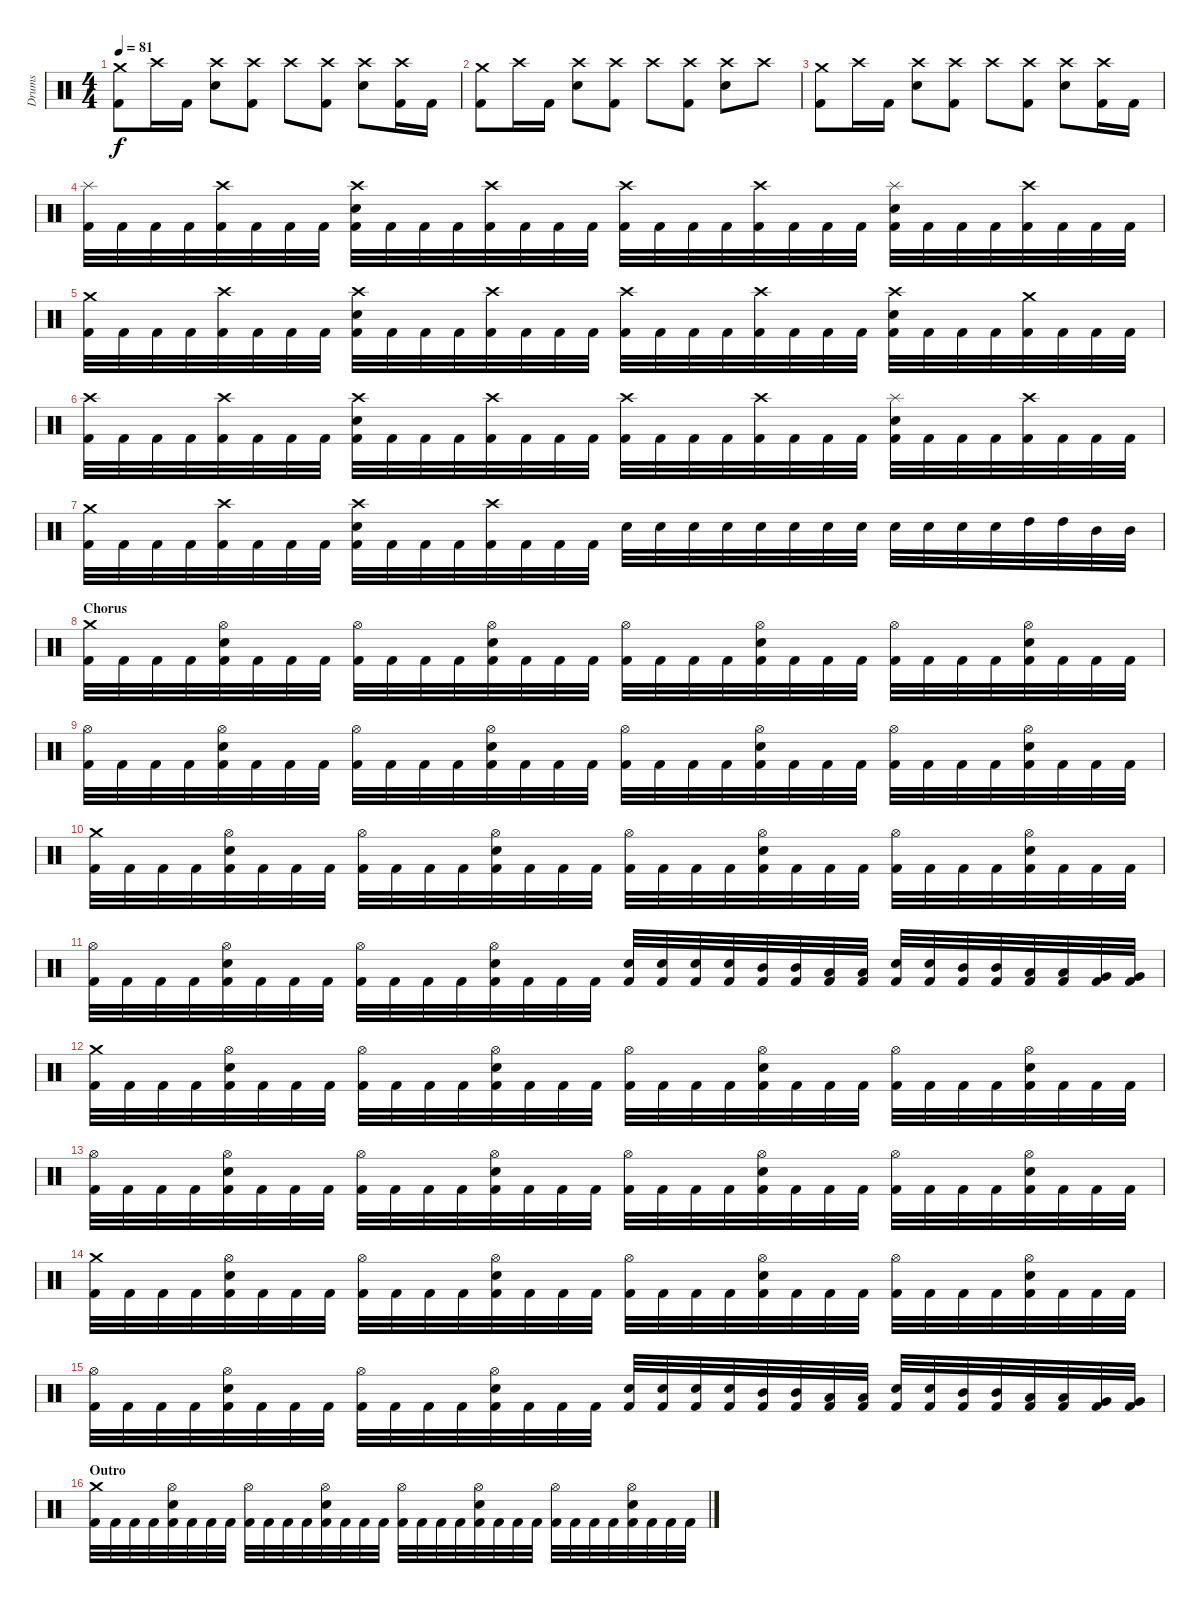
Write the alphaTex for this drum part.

\track ("Drums" "Drums") {instrument percussion}
\staff {score}
\articulation defaults
\ts (4 4)
\tempo 81
\clef neutral
\ks c
("Crash medium (hit)" "Kick (hit) 2").8{dy f} "Crash high (hit)".16 "Kick (hit) 2".16 ("Crash high (hit)" "Electric Snare (hit)").8 ("Crash high (hit)" "Kick (hit) 2").8 "Crash high (hit)".8 ("Crash high (hit)" "Kick (hit) 2").8 ("Crash high (hit)" "Electric Snare (hit)").8 ("Crash high (hit)" "Kick (hit) 2").16 "Kick (hit) 2".16 |
("Crash medium (hit)" "Kick (hit) 2").8 "Crash high (hit)".16 "Kick (hit) 2".16 ("Crash high (hit)" "Electric Snare (hit)").8 ("Crash high (hit)" "Kick (hit) 2").8 "Crash high (hit)".8 ("Crash high (hit)" "Kick (hit) 2").8 ("Crash high (hit)" "Electric Snare (hit)").8 "Crash high (hit)".8 |
("Crash medium (hit)" "Kick (hit) 2").8 "Crash high (hit)".16 "Kick (hit) 2".16 ("Crash high (hit)" "Electric Snare (hit)").8 ("Crash high (hit)" "Kick (hit) 2").8 "Crash high (hit)".8 ("Crash high (hit)" "Kick (hit) 2").8 ("Crash high (hit)" "Electric Snare (hit)").8 ("Crash high (hit)" "Kick (hit) 2").16 "Kick (hit) 2".16 |
("Splash (hit)" "Kick (hit) 2").32 "Kick (hit) 2".32 "Kick (hit) 2".32 "Kick (hit) 2".32 ("Crash high (hit)" "Kick (hit) 2").32 "Kick (hit) 2".32 "Kick (hit) 2".32 "Kick (hit) 2".32 ("Crash high (hit)" "Electric Snare (hit)" "Kick (hit) 2").32 "Kick (hit) 2".32 "Kick (hit) 2".32 "Kick (hit) 2".32 ("Crash high (hit)" "Kick (hit) 2").32 "Kick (hit) 2".32 "Kick (hit) 2".32 "Kick (hit) 2".32 ("Crash high (hit)" "Kick (hit) 2").32 "Kick (hit) 2".32 "Kick (hit) 2".32 "Kick (hit) 2".32 ("Crash high (hit)" "Kick (hit) 2").32 "Kick (hit) 2".32 "Kick (hit) 2".32 "Kick (hit) 2".32 ("Splash (hit)" "Electric Snare (hit)" "Kick (hit) 2").32 "Kick (hit) 2".32 "Kick (hit) 2".32 "Kick (hit) 2".32 ("Crash high (hit)" "Kick (hit) 2").32 "Kick (hit) 2".32 "Kick (hit) 2".32 "Kick (hit) 2".32 |
("Crash medium (hit)" "Kick (hit) 2").32 "Kick (hit) 2".32 "Kick (hit) 2".32 "Kick (hit) 2".32 ("Crash high (hit)" "Kick (hit) 2").32 "Kick (hit) 2".32 "Kick (hit) 2".32 "Kick (hit) 2".32 ("Crash high (hit)" "Electric Snare (hit)" "Kick (hit) 2").32 "Kick (hit) 2".32 "Kick (hit) 2".32 "Kick (hit) 2".32 ("Crash high (hit)" "Kick (hit) 2").32 "Kick (hit) 2".32 "Kick (hit) 2".32 "Kick (hit) 2".32 ("Crash high (hit)" "Kick (hit) 2").32 "Kick (hit) 2".32 "Kick (hit) 2".32 "Kick (hit) 2".32 ("Crash high (hit)" "Kick (hit) 2").32 "Kick (hit) 2".32 "Kick (hit) 2".32 "Kick (hit) 2".32 ("Crash high (hit)" "Electric Snare (hit)" "Kick (hit) 2").32 "Kick (hit) 2".32 "Kick (hit) 2".32 "Kick (hit) 2".32 ("Crash medium (hit)" "Kick (hit) 2").32 "Kick (hit) 2".32 "Kick (hit) 2".32 "Kick (hit) 2".32 |
("Crash high (hit)" "Kick (hit) 2").32 "Kick (hit) 2".32 "Kick (hit) 2".32 "Kick (hit) 2".32 ("Crash high (hit)" "Kick (hit) 2").32 "Kick (hit) 2".32 "Kick (hit) 2".32 "Kick (hit) 2".32 ("Crash high (hit)" "Electric Snare (hit)" "Kick (hit) 2").32 "Kick (hit) 2".32 "Kick (hit) 2".32 "Kick (hit) 2".32 ("Crash high (hit)" "Kick (hit) 2").32 "Kick (hit) 2".32 "Kick (hit) 2".32 "Kick (hit) 2".32 ("Crash high (hit)" "Kick (hit) 2").32 "Kick (hit) 2".32 "Kick (hit) 2".32 "Kick (hit) 2".32 ("Crash high (hit)" "Kick (hit) 2").32 "Kick (hit) 2".32 "Kick (hit) 2".32 "Kick (hit) 2".32 ("Splash (hit)" "Electric Snare (hit)" "Kick (hit) 2").32 "Kick (hit) 2".32 "Kick (hit) 2".32 "Kick (hit) 2".32 ("Crash high (hit)" "Kick (hit) 2").32 "Kick (hit) 2".32 "Kick (hit) 2".32 "Kick (hit) 2".32 |
("Crash medium (hit)" "Kick (hit) 2").32 "Kick (hit) 2".32 "Kick (hit) 2".32 "Kick (hit) 2".32 ("Crash high (hit)" "Kick (hit) 2").32 "Kick (hit) 2".32 "Kick (hit) 2".32 "Kick (hit) 2".32 ("Crash high (hit)" "Electric Snare (hit)" "Kick (hit) 2").32 "Kick (hit) 2".32 "Kick (hit) 2".32 "Kick (hit) 2".32 ("Crash high (hit)" "Kick (hit) 2").32 "Kick (hit) 2".32 "Kick (hit) 2".32 "Kick (hit) 2".32 "Electric Snare (hit)".32{volume 0} "Electric Snare (hit)".32{volume 14} "Electric Snare (hit)".32 "Electric Snare (hit)".32 "Electric Snare (hit)".32 "Electric Snare (hit)".32 "Electric Snare (hit)".32 "Electric Snare (hit)".32 "Electric Snare (hit)".32 "Electric Snare (hit)".32 "Electric Snare (hit)".32 "Electric Snare (hit)".32 "High Tom (hit)".32 "High Tom (hit)".32 "Mid Tom (hit)".32 "Mid Tom (hit)".32 |
\section ("" "Chorus")
("Crash medium (hit)" "Kick (hit) 2").32 "Kick (hit) 2".32 "Kick (hit) 2".32 "Kick (hit) 2".32 ("Hi-Hat (open)" "Electric Snare (hit)" "Kick (hit) 2").32 "Kick (hit) 2".32 "Kick (hit) 2".32 "Kick (hit) 2".32 ("Hi-Hat (open)" "Kick (hit) 2").32 "Kick (hit) 2".32 "Kick (hit) 2".32 "Kick (hit) 2".32 ("Hi-Hat (open)" "Electric Snare (hit)" "Kick (hit) 2").32 "Kick (hit) 2".32 "Kick (hit) 2".32 "Kick (hit) 2".32 ("Hi-Hat (open)" "Kick (hit) 2").32 "Kick (hit) 2".32 "Kick (hit) 2".32 "Kick (hit) 2".32 ("Hi-Hat (open)" "Electric Snare (hit)" "Kick (hit) 2").32 "Kick (hit) 2".32 "Kick (hit) 2".32 "Kick (hit) 2".32 ("Hi-Hat (open)" "Kick (hit) 2").32 "Kick (hit) 2".32 "Kick (hit) 2".32 "Kick (hit) 2".32 ("Hi-Hat (open)" "Electric Snare (hit)" "Kick (hit) 2").32 "Kick (hit) 2".32 "Kick (hit) 2".32 "Kick (hit) 2".32 |
("Hi-Hat (open)" "Kick (hit) 2").32 "Kick (hit) 2".32 "Kick (hit) 2".32 "Kick (hit) 2".32 ("Hi-Hat (open)" "Electric Snare (hit)" "Kick (hit) 2").32 "Kick (hit) 2".32 "Kick (hit) 2".32 "Kick (hit) 2".32 ("Hi-Hat (open)" "Kick (hit) 2").32 "Kick (hit) 2".32 "Kick (hit) 2".32 "Kick (hit) 2".32 ("Hi-Hat (open)" "Electric Snare (hit)" "Kick (hit) 2").32 "Kick (hit) 2".32 "Kick (hit) 2".32 "Kick (hit) 2".32 ("Hi-Hat (open)" "Kick (hit) 2").32 "Kick (hit) 2".32 "Kick (hit) 2".32 "Kick (hit) 2".32 ("Hi-Hat (open)" "Electric Snare (hit)" "Kick (hit) 2").32 "Kick (hit) 2".32 "Kick (hit) 2".32 "Kick (hit) 2".32 ("Hi-Hat (open)" "Kick (hit) 2").32 "Kick (hit) 2".32 "Kick (hit) 2".32 "Kick (hit) 2".32 ("Hi-Hat (open)" "Electric Snare (hit)" "Kick (hit) 2").32 "Kick (hit) 2".32 "Kick (hit) 2".32 "Kick (hit) 2".32 |
("Crash medium (hit)" "Kick (hit) 2").32 "Kick (hit) 2".32 "Kick (hit) 2".32 "Kick (hit) 2".32 ("Hi-Hat (open)" "Electric Snare (hit)" "Kick (hit) 2").32 "Kick (hit) 2".32 "Kick (hit) 2".32 "Kick (hit) 2".32 ("Hi-Hat (open)" "Kick (hit) 2").32 "Kick (hit) 2".32 "Kick (hit) 2".32 "Kick (hit) 2".32 ("Hi-Hat (open)" "Electric Snare (hit)" "Kick (hit) 2").32 "Kick (hit) 2".32 "Kick (hit) 2".32 "Kick (hit) 2".32 ("Hi-Hat (open)" "Kick (hit) 2").32 "Kick (hit) 2".32 "Kick (hit) 2".32 "Kick (hit) 2".32 ("Hi-Hat (open)" "Electric Snare (hit)" "Kick (hit) 2").32 "Kick (hit) 2".32 "Kick (hit) 2".32 "Kick (hit) 2".32 ("Hi-Hat (open)" "Kick (hit) 2").32 "Kick (hit) 2".32 "Kick (hit) 2".32 "Kick (hit) 2".32 ("Hi-Hat (open)" "Electric Snare (hit)" "Kick (hit) 2").32 "Kick (hit) 2".32 "Kick (hit) 2".32 "Kick (hit) 2".32 |
("Hi-Hat (open)" "Kick (hit) 2").32 "Kick (hit) 2".32 "Kick (hit) 2".32 "Kick (hit) 2".32 ("Hi-Hat (open)" "Electric Snare (hit)" "Kick (hit) 2").32 "Kick (hit) 2".32 "Kick (hit) 2".32 "Kick (hit) 2".32 ("Hi-Hat (open)" "Kick (hit) 2").32 "Kick (hit) 2".32 "Kick (hit) 2".32 "Kick (hit) 2".32 ("Hi-Hat (open)" "Electric Snare (hit)" "Kick (hit) 2").32 "Kick (hit) 2".32 "Kick (hit) 2".32 "Kick (hit) 2".32 ("Electric Snare (hit)" "Kick (hit) 2").32 ("Electric Snare (hit)" "Kick (hit) 2").32 ("Electric Snare (hit)" "Kick (hit) 2").32 ("Electric Snare (hit)" "Kick (hit) 2").32 ("Mid Tom (hit)" "Kick (hit) 2").32 ("Mid Tom (hit)" "Kick (hit) 2").32 ("Low Tom (hit)" "Kick (hit) 2").32 ("Low Tom (hit)" "Kick (hit) 2").32 ("Electric Snare (hit)" "Kick (hit) 2").32 ("Electric Snare (hit)" "Kick (hit) 2").32 ("Mid Tom (hit)" "Kick (hit) 2").32 ("Mid Tom (hit)" "Kick (hit) 2").32 ("Low Tom (hit)" "Kick (hit) 2").32 ("Low Tom (hit)" "Kick (hit) 2").32 ("Very Low Tom (hit)" "Kick (hit) 2").32 ("Very Low Tom (hit)" "Kick (hit) 2").32 |
("Crash medium (hit)" "Kick (hit) 2").32 "Kick (hit) 2".32 "Kick (hit) 2".32 "Kick (hit) 2".32 ("Hi-Hat (open)" "Electric Snare (hit)" "Kick (hit) 2").32 "Kick (hit) 2".32 "Kick (hit) 2".32 "Kick (hit) 2".32 ("Hi-Hat (open)" "Kick (hit) 2").32 "Kick (hit) 2".32 "Kick (hit) 2".32 "Kick (hit) 2".32 ("Hi-Hat (open)" "Electric Snare (hit)" "Kick (hit) 2").32 "Kick (hit) 2".32 "Kick (hit) 2".32 "Kick (hit) 2".32 ("Hi-Hat (open)" "Kick (hit) 2").32 "Kick (hit) 2".32 "Kick (hit) 2".32 "Kick (hit) 2".32 ("Hi-Hat (open)" "Electric Snare (hit)" "Kick (hit) 2").32 "Kick (hit) 2".32 "Kick (hit) 2".32 "Kick (hit) 2".32 ("Hi-Hat (open)" "Kick (hit) 2").32 "Kick (hit) 2".32 "Kick (hit) 2".32 "Kick (hit) 2".32 ("Hi-Hat (open)" "Electric Snare (hit)" "Kick (hit) 2").32 "Kick (hit) 2".32 "Kick (hit) 2".32 "Kick (hit) 2".32 |
("Hi-Hat (open)" "Kick (hit) 2").32 "Kick (hit) 2".32 "Kick (hit) 2".32 "Kick (hit) 2".32 ("Hi-Hat (open)" "Electric Snare (hit)" "Kick (hit) 2").32 "Kick (hit) 2".32 "Kick (hit) 2".32 "Kick (hit) 2".32 ("Hi-Hat (open)" "Kick (hit) 2").32 "Kick (hit) 2".32 "Kick (hit) 2".32 "Kick (hit) 2".32 ("Hi-Hat (open)" "Electric Snare (hit)" "Kick (hit) 2").32 "Kick (hit) 2".32 "Kick (hit) 2".32 "Kick (hit) 2".32 ("Hi-Hat (open)" "Kick (hit) 2").32 "Kick (hit) 2".32 "Kick (hit) 2".32 "Kick (hit) 2".32 ("Hi-Hat (open)" "Electric Snare (hit)" "Kick (hit) 2").32 "Kick (hit) 2".32 "Kick (hit) 2".32 "Kick (hit) 2".32 ("Hi-Hat (open)" "Kick (hit) 2").32 "Kick (hit) 2".32 "Kick (hit) 2".32 "Kick (hit) 2".32 ("Hi-Hat (open)" "Electric Snare (hit)" "Kick (hit) 2").32 "Kick (hit) 2".32 "Kick (hit) 2".32 "Kick (hit) 2".32 |
("Crash medium (hit)" "Kick (hit) 2").32 "Kick (hit) 2".32 "Kick (hit) 2".32 "Kick (hit) 2".32 ("Hi-Hat (open)" "Electric Snare (hit)" "Kick (hit) 2").32 "Kick (hit) 2".32 "Kick (hit) 2".32 "Kick (hit) 2".32 ("Hi-Hat (open)" "Kick (hit) 2").32 "Kick (hit) 2".32 "Kick (hit) 2".32 "Kick (hit) 2".32 ("Hi-Hat (open)" "Electric Snare (hit)" "Kick (hit) 2").32 "Kick (hit) 2".32 "Kick (hit) 2".32 "Kick (hit) 2".32 ("Hi-Hat (open)" "Kick (hit) 2").32 "Kick (hit) 2".32 "Kick (hit) 2".32 "Kick (hit) 2".32 ("Hi-Hat (open)" "Electric Snare (hit)" "Kick (hit) 2").32 "Kick (hit) 2".32 "Kick (hit) 2".32 "Kick (hit) 2".32 ("Hi-Hat (open)" "Kick (hit) 2").32 "Kick (hit) 2".32 "Kick (hit) 2".32 "Kick (hit) 2".32 ("Hi-Hat (open)" "Electric Snare (hit)" "Kick (hit) 2").32 "Kick (hit) 2".32 "Kick (hit) 2".32 "Kick (hit) 2".32 |
("Hi-Hat (open)" "Kick (hit) 2").32 "Kick (hit) 2".32 "Kick (hit) 2".32 "Kick (hit) 2".32 ("Hi-Hat (open)" "Electric Snare (hit)" "Kick (hit) 2").32 "Kick (hit) 2".32 "Kick (hit) 2".32 "Kick (hit) 2".32 ("Hi-Hat (open)" "Kick (hit) 2").32 "Kick (hit) 2".32 "Kick (hit) 2".32 "Kick (hit) 2".32 ("Hi-Hat (open)" "Electric Snare (hit)" "Kick (hit) 2").32 "Kick (hit) 2".32 "Kick (hit) 2".32 "Kick (hit) 2".32 ("Electric Snare (hit)" "Kick (hit) 2").32 ("Electric Snare (hit)" "Kick (hit) 2").32 ("Electric Snare (hit)" "Kick (hit) 2").32 ("Electric Snare (hit)" "Kick (hit) 2").32 ("Mid Tom (hit)" "Kick (hit) 2").32 ("Mid Tom (hit)" "Kick (hit) 2").32 ("Low Tom (hit)" "Kick (hit) 2").32 ("Low Tom (hit)" "Kick (hit) 2").32 ("Electric Snare (hit)" "Kick (hit) 2").32 ("Electric Snare (hit)" "Kick (hit) 2").32 ("Mid Tom (hit)" "Kick (hit) 2").32 ("Mid Tom (hit)" "Kick (hit) 2").32 ("Low Tom (hit)" "Kick (hit) 2").32 ("Low Tom (hit)" "Kick (hit) 2").32 ("Very Low Tom (hit)" "Kick (hit) 2").32 ("Very Low Tom (hit)" "Kick (hit) 2").32 |
\section ("" "Outro")
("Crash medium (hit)" "Kick (hit) 2").32 "Kick (hit) 2".32 "Kick (hit) 2".32 "Kick (hit) 2".32 ("Hi-Hat (open)" "Electric Snare (hit)" "Kick (hit) 2").32 "Kick (hit) 2".32 "Kick (hit) 2".32 "Kick (hit) 2".32 ("Hi-Hat (open)" "Kick (hit) 2").32 "Kick (hit) 2".32 "Kick (hit) 2".32 "Kick (hit) 2".32 ("Hi-Hat (open)" "Electric Snare (hit)" "Kick (hit) 2").32 "Kick (hit) 2".32 "Kick (hit) 2".32 "Kick (hit) 2".32 ("Hi-Hat (open)" "Kick (hit) 2").32 "Kick (hit) 2".32 "Kick (hit) 2".32 "Kick (hit) 2".32 ("Hi-Hat (open)" "Electric Snare (hit)" "Kick (hit) 2").32 "Kick (hit) 2".32 "Kick (hit) 2".32 "Kick (hit) 2".32 ("Hi-Hat (open)" "Kick (hit) 2").32 "Kick (hit) 2".32 "Kick (hit) 2".32 "Kick (hit) 2".32 ("Hi-Hat (open)" "Electric Snare (hit)" "Kick (hit) 2").32 "Kick (hit) 2".32 "Kick (hit) 2".32 "Kick (hit) 2".32
